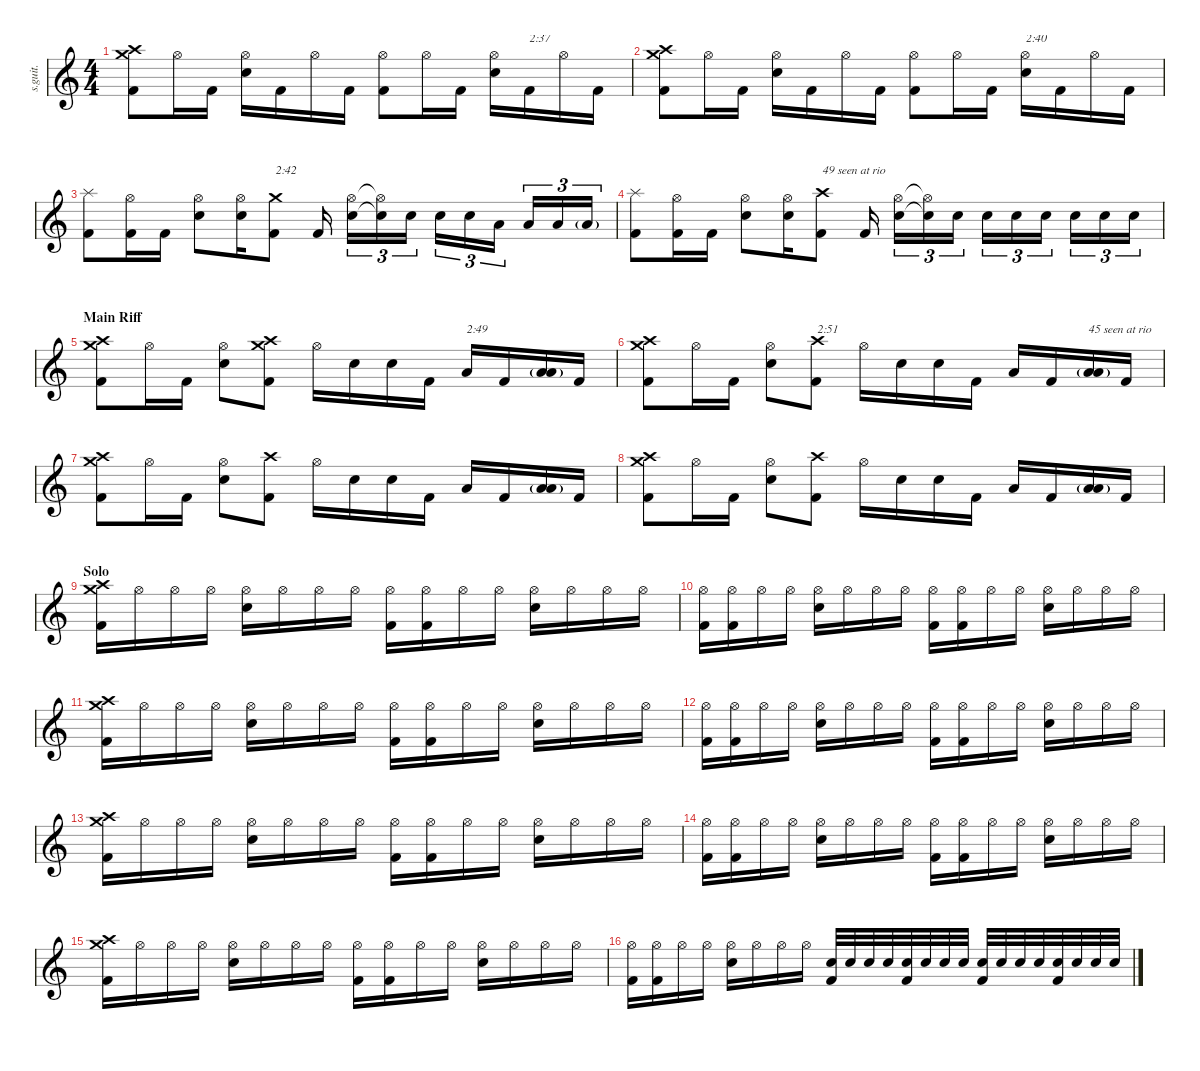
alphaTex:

\defaultSystemsLayout 4
\hideDynamics
\bracketExtendMode nobrackets
\track ("Dave Grohl | Drums" "s.guit.") {instrument percussion}
\staff {score}
\articulation defaults
\ts (4 4)
\tempo (79 hide)
\clef g2
\ks c
("Crash medium (hit)" "Crash high (hit)" "Kick (hit) 2").8{lyrics (0 "") lyrics (1 "") lyrics (2 "") lyrics (3 "") lyrics (4 "") dy f} "Hi-Hat (open)".16{lyrics (0 "") lyrics (1 "") lyrics (2 "") lyrics (3 "") lyrics (4 "")} "Kick (hit) 2".16{lyrics (0 "") lyrics (1 "") lyrics (2 "") lyrics (3 "") lyrics (4 "")} ("Hi-Hat (open)" "Snare (hit) 2").16{lyrics (0 "") lyrics (1 "") lyrics (2 "") lyrics (3 "") lyrics (4 "")} "Kick (hit) 2".16{lyrics (0 "") lyrics (1 "") lyrics (2 "") lyrics (3 "") lyrics (4 "")} "Hi-Hat (open)".16{lyrics (0 "") lyrics (1 "") lyrics (2 "") lyrics (3 "") lyrics (4 "")} "Kick (hit) 2".16{lyrics (0 "") lyrics (1 "") lyrics (2 "") lyrics (3 "") lyrics (4 "")} ("Hi-Hat (open)" "Kick (hit) 2").8{lyrics (0 "") lyrics (1 "") lyrics (2 "") lyrics (3 "") lyrics (4 "")} "Hi-Hat (open)".16{lyrics (0 "") lyrics (1 "") lyrics (2 "") lyrics (3 "") lyrics (4 "")} "Kick (hit) 2".16{lyrics (0 "") lyrics (1 "") lyrics (2 "") lyrics (3 "") lyrics (4 "")} ("Hi-Hat (open)" "Snare (hit) 2").16{lyrics (0 "") lyrics (1 "") lyrics (2 "") lyrics (3 "") lyrics (4 "")} "Kick (hit) 2".16{txt "2:37" lyrics (0 "") lyrics (1 "") lyrics (2 "") lyrics (3 "") lyrics (4 "")} "Hi-Hat (open)".16{lyrics (0 "") lyrics (1 "") lyrics (2 "") lyrics (3 "") lyrics (4 "")} "Kick (hit) 2".16{lyrics (0 "") lyrics (1 "") lyrics (2 "") lyrics (3 "") lyrics (4 "")} |
("Crash medium (hit)" "Crash high (hit)" "Kick (hit) 2").8{lyrics (0 "") lyrics (1 "") lyrics (2 "") lyrics (3 "") lyrics (4 "")} "Hi-Hat (open)".16{lyrics (0 "") lyrics (1 "") lyrics (2 "") lyrics (3 "") lyrics (4 "")} "Kick (hit) 2".16{lyrics (0 "") lyrics (1 "") lyrics (2 "") lyrics (3 "") lyrics (4 "")} ("Hi-Hat (open)" "Snare (hit) 2").16{lyrics (0 "") lyrics (1 "") lyrics (2 "") lyrics (3 "") lyrics (4 "")} "Kick (hit) 2".16{lyrics (0 "") lyrics (1 "") lyrics (2 "") lyrics (3 "") lyrics (4 "")} "Hi-Hat (open)".16{lyrics (0 "") lyrics (1 "") lyrics (2 "") lyrics (3 "") lyrics (4 "")} "Kick (hit) 2".16{lyrics (0 "") lyrics (1 "") lyrics (2 "") lyrics (3 "") lyrics (4 "")} ("Hi-Hat (open)" "Kick (hit) 2").8{lyrics (0 "") lyrics (1 "") lyrics (2 "") lyrics (3 "") lyrics (4 "")} "Hi-Hat (open)".16{lyrics (0 "") lyrics (1 "") lyrics (2 "") lyrics (3 "") lyrics (4 "")} "Kick (hit) 2".16{lyrics (0 "") lyrics (1 "") lyrics (2 "") lyrics (3 "") lyrics (4 "")} ("Hi-Hat (open)" "Snare (hit) 2").16{txt "2:40" lyrics (0 "") lyrics (1 "") lyrics (2 "") lyrics (3 "") lyrics (4 "")} "Kick (hit) 2".16{lyrics (0 "") lyrics (1 "") lyrics (2 "") lyrics (3 "") lyrics (4 "")} "Hi-Hat (open)".16{lyrics (0 "") lyrics (1 "") lyrics (2 "") lyrics (3 "") lyrics (4 "")} "Kick (hit) 2".16{lyrics (0 "") lyrics (1 "") lyrics (2 "") lyrics (3 "") lyrics (4 "")} |
("Splash (hit)" "Kick (hit) 2").8{lyrics (0 "") lyrics (1 "") lyrics (2 "") lyrics (3 "") lyrics (4 "")} ("Hi-Hat (open)" "Kick (hit) 2").16{lyrics (0 "") lyrics (1 "") lyrics (2 "") lyrics (3 "") lyrics (4 "")} "Kick (hit) 2".16{lyrics (0 "") lyrics (1 "") lyrics (2 "") lyrics (3 "") lyrics (4 "") dy fff} ("Hi-Hat (open)" "Snare (hit) 2").8{lyrics (0 "") lyrics (1 "") lyrics (2 "") lyrics (3 "") lyrics (4 "") dy f} ("Hi-Hat (open)" "Snare (hit) 2").16{lyrics (0 "") lyrics (1 "") lyrics (2 "") lyrics (3 "") lyrics (4 "")} ("Crash medium (hit)" "Kick (hit) 2").8{txt "2:42" lyrics (0 "") lyrics (1 "") lyrics (2 "") lyrics (3 "") lyrics (4 "")} "Kick (hit) 2".16{lyrics (0 "") lyrics (1 "") lyrics (2 "") lyrics (3 "") lyrics (4 "") dy fff} ("Hi-Hat (open)" "Snare (hit) 2").16{tu (3 2) lyrics (0 "") lyrics (1 "") lyrics (2 "") lyrics (3 "") lyrics (4 "") dy f} ("Hi-Hat (open)"{t} "Snare (hit) 2"{t}).16{tu (3 2) lyrics (0 "") lyrics (1 "") lyrics (2 "") lyrics (3 "") lyrics (4 "")} "Snare (hit) 2".16{tu (3 2) lyrics (0 "") lyrics (1 "") lyrics (2 "") lyrics (3 "") lyrics (4 "")} "Snare (hit) 2".16{tu (3 2) lyrics (0 "") lyrics (1 "") lyrics (2 "") lyrics (3 "") lyrics (4 "")} "Snare (hit) 2".16{tu (3 2) lyrics (0 "") lyrics (1 "") lyrics (2 "") lyrics (3 "") lyrics (4 "")} "Low Tom (hit)".16{tu (3 2) lyrics (0 "") lyrics (1 "") lyrics (2 "") lyrics (3 "") lyrics (4 "")} "Low Tom (hit)".16{tu (3 2) lyrics (0 "") lyrics (1 "") lyrics (2 "") lyrics (3 "") lyrics (4 "")} "Low Floor Tom (hit)".16{tu (3 2) lyrics (0 "") lyrics (1 "") lyrics (2 "") lyrics (3 "") lyrics (4 "")} "Low Floor Tom (hit)"{g}.16{tu (3 2) lyrics (0 "") lyrics (1 "") lyrics (2 "") lyrics (3 "") lyrics (4 "") dy ff} |
("Splash (hit)" "Kick (hit) 2").8{lyrics (0 "") lyrics (1 "") lyrics (2 "") lyrics (3 "") lyrics (4 "") dy f} ("Hi-Hat (open)" "Kick (hit) 2").16{lyrics (0 "") lyrics (1 "") lyrics (2 "") lyrics (3 "") lyrics (4 "")} "Kick (hit) 2".16{lyrics (0 "") lyrics (1 "") lyrics (2 "") lyrics (3 "") lyrics (4 "")} ("Hi-Hat (open)" "Snare (hit) 2").8{lyrics (0 "") lyrics (1 "") lyrics (2 "") lyrics (3 "") lyrics (4 "")} ("Hi-Hat (open)" "Snare (hit) 2").16{lyrics (0 "") lyrics (1 "") lyrics (2 "") lyrics (3 "") lyrics (4 "")} ("Crash high (hit)" "Kick (hit) 2").8{txt "49 seen at rio" lyrics (0 "") lyrics (1 "") lyrics (2 "") lyrics (3 "") lyrics (4 "")} "Kick (hit) 2".16{lyrics (0 "") lyrics (1 "") lyrics (2 "") lyrics (3 "") lyrics (4 "")} ("Hi-Hat (open)" "Snare (hit) 2").16{tu (3 2) lyrics (0 "") lyrics (1 "") lyrics (2 "") lyrics (3 "") lyrics (4 "")} ("Hi-Hat (open)"{t} "Snare (hit) 2"{t}).16{tu (3 2) lyrics (0 "") lyrics (1 "") lyrics (2 "") lyrics (3 "") lyrics (4 "")} "Snare (hit) 2".16{tu (3 2) lyrics (0 "") lyrics (1 "") lyrics (2 "") lyrics (3 "") lyrics (4 "")} "Snare (hit) 2".16{tu (3 2) lyrics (0 "") lyrics (1 "") lyrics (2 "") lyrics (3 "") lyrics (4 "")} "Snare (hit) 2".16{tu (3 2) lyrics (0 "") lyrics (1 "") lyrics (2 "") lyrics (3 "") lyrics (4 "")} "Snare (hit) 2".16{tu (3 2) lyrics (0 "") lyrics (1 "") lyrics (2 "") lyrics (3 "") lyrics (4 "")} "Snare (hit) 2".16{tu (3 2) lyrics (0 "") lyrics (1 "") lyrics (2 "") lyrics (3 "") lyrics (4 "")} "Snare (hit) 2".16{tu (3 2) lyrics (0 "") lyrics (1 "") lyrics (2 "") lyrics (3 "") lyrics (4 "")} "Snare (hit) 2".16{tu (3 2) lyrics (0 "") lyrics (1 "") lyrics (2 "") lyrics (3 "") lyrics (4 "")} |
\section ("" "Main Riff")
("Crash medium (hit)" "Crash high (hit)" "Kick (hit) 2").8{lyrics (0 "") lyrics (1 "") lyrics (2 "") lyrics (3 "") lyrics (4 "")} "Hi-Hat (open)".16{lyrics (0 "") lyrics (1 "") lyrics (2 "") lyrics (3 "") lyrics (4 "")} "Kick (hit) 2".16{lyrics (0 "") lyrics (1 "") lyrics (2 "") lyrics (3 "") lyrics (4 "") dy fff} ("Hi-Hat (open)" "Snare (hit) 2").8{lyrics (0 "") lyrics (1 "") lyrics (2 "") lyrics (3 "") lyrics (4 "") dy f} ("Crash medium (hit)" "Crash high (hit)" "Kick (hit) 2").8{lyrics (0 "") lyrics (1 "") lyrics (2 "") lyrics (3 "") lyrics (4 "")} "Hi-Hat (open)".16{lyrics (0 "") lyrics (1 "") lyrics (2 "") lyrics (3 "") lyrics (4 "")} "Snare (hit) 2".16{lyrics (0 "") lyrics (1 "") lyrics (2 "") lyrics (3 "") lyrics (4 "")} "Snare (hit) 2".16{lyrics (0 "") lyrics (1 "") lyrics (2 "") lyrics (3 "") lyrics (4 "")} "Kick (hit) 2".16{lyrics (0 "") lyrics (1 "") lyrics (2 "") lyrics (3 "") lyrics (4 "") dy fff} "Low Tom (hit)".16{txt "2:49" lyrics (0 "") lyrics (1 "") lyrics (2 "") lyrics (3 "") lyrics (4 "") dy f} "Kick (hit) 2".16{lyrics (0 "") lyrics (1 "") lyrics (2 "") lyrics (3 "") lyrics (4 "") dy fff} ("Low Tom (hit)"{g} "Low Floor Tom (hit)").16{lyrics (0 "") lyrics (1 "") lyrics (2 "") lyrics (3 "") lyrics (4 "") dy f} "Kick (hit) 2".16{lyrics (0 "") lyrics (1 "") lyrics (2 "") lyrics (3 "") lyrics (4 "") dy fff} |
("Crash medium (hit)" "Crash high (hit)" "Kick (hit) 2").8{lyrics (0 "") lyrics (1 "") lyrics (2 "") lyrics (3 "") lyrics (4 "") dy f} "Hi-Hat (open)".16{lyrics (0 "") lyrics (1 "") lyrics (2 "") lyrics (3 "") lyrics (4 "")} "Kick (hit) 2".16{lyrics (0 "") lyrics (1 "") lyrics (2 "") lyrics (3 "") lyrics (4 "") dy fff} ("Hi-Hat (open)" "Snare (hit) 2").8{lyrics (0 "") lyrics (1 "") lyrics (2 "") lyrics (3 "") lyrics (4 "") dy f} ("Crash high (hit)" "Kick (hit) 2").8{txt "2:51" lyrics (0 "") lyrics (1 "") lyrics (2 "") lyrics (3 "") lyrics (4 "")} "Hi-Hat (open)".16{lyrics (0 "") lyrics (1 "") lyrics (2 "") lyrics (3 "") lyrics (4 "")} "Snare (hit) 2".16{lyrics (0 "") lyrics (1 "") lyrics (2 "") lyrics (3 "") lyrics (4 "")} "Snare (hit) 2".16{lyrics (0 "") lyrics (1 "") lyrics (2 "") lyrics (3 "") lyrics (4 "")} "Kick (hit) 2".16{lyrics (0 "") lyrics (1 "") lyrics (2 "") lyrics (3 "") lyrics (4 "")} "Low Tom (hit)".16{lyrics (0 "") lyrics (1 "") lyrics (2 "") lyrics (3 "") lyrics (4 "")} "Kick (hit) 2".16{lyrics (0 "") lyrics (1 "") lyrics (2 "") lyrics (3 "") lyrics (4 "")} ("Low Tom (hit)"{g} "Low Floor Tom (hit)").16{txt "45 seen at rio" lyrics (0 "") lyrics (1 "") lyrics (2 "") lyrics (3 "") lyrics (4 "")} "Kick (hit) 2".16{lyrics (0 "") lyrics (1 "") lyrics (2 "") lyrics (3 "") lyrics (4 "")} |
("Crash medium (hit)" "Crash high (hit)" "Kick (hit) 2").8{lyrics (0 "") lyrics (1 "") lyrics (2 "") lyrics (3 "") lyrics (4 "")} "Hi-Hat (open)".16{lyrics (0 "") lyrics (1 "") lyrics (2 "") lyrics (3 "") lyrics (4 "")} "Kick (hit) 2".16{lyrics (0 "") lyrics (1 "") lyrics (2 "") lyrics (3 "") lyrics (4 "") dy fff} ("Hi-Hat (open)" "Snare (hit) 2").8{lyrics (0 "") lyrics (1 "") lyrics (2 "") lyrics (3 "") lyrics (4 "") dy f} ("Crash high (hit)" "Kick (hit) 2").8{lyrics (0 "") lyrics (1 "") lyrics (2 "") lyrics (3 "") lyrics (4 "")} "Hi-Hat (open)".16{lyrics (0 "") lyrics (1 "") lyrics (2 "") lyrics (3 "") lyrics (4 "")} "Snare (hit) 2".16{lyrics (0 "") lyrics (1 "") lyrics (2 "") lyrics (3 "") lyrics (4 "")} "Snare (hit) 2".16{lyrics (0 "") lyrics (1 "") lyrics (2 "") lyrics (3 "") lyrics (4 "")} "Kick (hit) 2".16{lyrics (0 "") lyrics (1 "") lyrics (2 "") lyrics (3 "") lyrics (4 "") dy fff} "Low Tom (hit)".16{lyrics (0 "") lyrics (1 "") lyrics (2 "") lyrics (3 "") lyrics (4 "") dy f} "Kick (hit) 2".16{lyrics (0 "") lyrics (1 "") lyrics (2 "") lyrics (3 "") lyrics (4 "") dy fff} ("Low Tom (hit)"{g} "Low Floor Tom (hit)").16{lyrics (0 "") lyrics (1 "") lyrics (2 "") lyrics (3 "") lyrics (4 "") dy f} "Kick (hit) 2".16{lyrics (0 "") lyrics (1 "") lyrics (2 "") lyrics (3 "") lyrics (4 "") dy fff} |
("Crash medium (hit)" "Crash high (hit)" "Kick (hit) 2").8{lyrics (0 "") lyrics (1 "") lyrics (2 "") lyrics (3 "") lyrics (4 "")} "Hi-Hat (open)".16{lyrics (0 "") lyrics (1 "") lyrics (2 "") lyrics (3 "") lyrics (4 "")} "Kick (hit) 2".16{lyrics (0 "") lyrics (1 "") lyrics (2 "") lyrics (3 "") lyrics (4 "")} ("Hi-Hat (open)" "Snare (hit) 2").8{lyrics (0 "") lyrics (1 "") lyrics (2 "") lyrics (3 "") lyrics (4 "") dy f} ("Crash high (hit)" "Kick (hit) 2").8{lyrics (0 "") lyrics (1 "") lyrics (2 "") lyrics (3 "") lyrics (4 "")} "Hi-Hat (open)".16{lyrics (0 "") lyrics (1 "") lyrics (2 "") lyrics (3 "") lyrics (4 "")} "Snare (hit) 2".16{lyrics (0 "") lyrics (1 "") lyrics (2 "") lyrics (3 "") lyrics (4 "")} "Snare (hit) 2".16{lyrics (0 "") lyrics (1 "") lyrics (2 "") lyrics (3 "") lyrics (4 "")} "Kick (hit) 2".16{lyrics (0 "") lyrics (1 "") lyrics (2 "") lyrics (3 "") lyrics (4 "") dy fff} "Low Tom (hit)".16{lyrics (0 "") lyrics (1 "") lyrics (2 "") lyrics (3 "") lyrics (4 "") dy f} "Kick (hit) 2".16{lyrics (0 "") lyrics (1 "") lyrics (2 "") lyrics (3 "") lyrics (4 "") dy fff} ("Low Tom (hit)"{g} "Low Floor Tom (hit)").16{lyrics (0 "") lyrics (1 "") lyrics (2 "") lyrics (3 "") lyrics (4 "") dy f} "Kick (hit) 2".16{lyrics (0 "") lyrics (1 "") lyrics (2 "") lyrics (3 "") lyrics (4 "") dy fff} |
\section ("" "Solo")
("Crash medium (hit)" "Crash high (hit)" "Kick (hit) 2").16{lyrics (0 "") lyrics (1 "") lyrics (2 "") lyrics (3 "") lyrics (4 "")} "Hi-Hat (open)".16{lyrics (0 "") lyrics (1 "") lyrics (2 "") lyrics (3 "") lyrics (4 "")} "Hi-Hat (open)".16{lyrics (0 "") lyrics (1 "") lyrics (2 "") lyrics (3 "") lyrics (4 "")} "Hi-Hat (open)".16{lyrics (0 "") lyrics (1 "") lyrics (2 "") lyrics (3 "") lyrics (4 "")} ("Hi-Hat (open)" "Snare (hit) 2").16{lyrics (0 "") lyrics (1 "") lyrics (2 "") lyrics (3 "") lyrics (4 "")} "Hi-Hat (open)".16{lyrics (0 "") lyrics (1 "") lyrics (2 "") lyrics (3 "") lyrics (4 "")} "Hi-Hat (open)".16{lyrics (0 "") lyrics (1 "") lyrics (2 "") lyrics (3 "") lyrics (4 "")} "Hi-Hat (open)".16{lyrics (0 "") lyrics (1 "") lyrics (2 "") lyrics (3 "") lyrics (4 "")} ("Hi-Hat (open)" "Kick (hit) 2").16{lyrics (0 "") lyrics (1 "") lyrics (2 "") lyrics (3 "") lyrics (4 "")} ("Kick (hit) 2" "Hi-Hat (open)").16{lyrics (0 "") lyrics (1 "") lyrics (2 "") lyrics (3 "") lyrics (4 "")} "Hi-Hat (open)".16{lyrics (0 "") lyrics (1 "") lyrics (2 "") lyrics (3 "") lyrics (4 "")} "Hi-Hat (open)".16{lyrics (0 "") lyrics (1 "") lyrics (2 "") lyrics (3 "") lyrics (4 "")} ("Hi-Hat (open)" "Snare (hit) 2").16{lyrics (0 "") lyrics (1 "") lyrics (2 "") lyrics (3 "") lyrics (4 "")} "Hi-Hat (open)".16{lyrics (0 "") lyrics (1 "") lyrics (2 "") lyrics (3 "") lyrics (4 "")} "Hi-Hat (open)".16{lyrics (0 "") lyrics (1 "") lyrics (2 "") lyrics (3 "") lyrics (4 "")} "Hi-Hat (open)".16{lyrics (0 "") lyrics (1 "") lyrics (2 "") lyrics (3 "") lyrics (4 "")} |
("Kick (hit) 2" "Hi-Hat (open)").16{lyrics (0 "") lyrics (1 "") lyrics (2 "") lyrics (3 "") lyrics (4 "")} ("Hi-Hat (open)" "Kick (hit) 2").16{lyrics (0 "") lyrics (1 "") lyrics (2 "") lyrics (3 "") lyrics (4 "")} "Hi-Hat (open)".16{lyrics (0 "") lyrics (1 "") lyrics (2 "") lyrics (3 "") lyrics (4 "")} "Hi-Hat (open)".16{lyrics (0 "") lyrics (1 "") lyrics (2 "") lyrics (3 "") lyrics (4 "")} ("Hi-Hat (open)" "Snare (hit) 2").16{lyrics (0 "") lyrics (1 "") lyrics (2 "") lyrics (3 "") lyrics (4 "")} "Hi-Hat (open)".16{lyrics (0 "") lyrics (1 "") lyrics (2 "") lyrics (3 "") lyrics (4 "")} "Hi-Hat (open)".16{lyrics (0 "") lyrics (1 "") lyrics (2 "") lyrics (3 "") lyrics (4 "")} "Hi-Hat (open)".16{lyrics (0 "") lyrics (1 "") lyrics (2 "") lyrics (3 "") lyrics (4 "")} ("Hi-Hat (open)" "Kick (hit) 2").16{lyrics (0 "") lyrics (1 "") lyrics (2 "") lyrics (3 "") lyrics (4 "")} ("Kick (hit) 2" "Hi-Hat (open)").16{lyrics (0 "") lyrics (1 "") lyrics (2 "") lyrics (3 "") lyrics (4 "")} "Hi-Hat (open)".16{lyrics (0 "") lyrics (1 "") lyrics (2 "") lyrics (3 "") lyrics (4 "")} "Hi-Hat (open)".16{lyrics (0 "") lyrics (1 "") lyrics (2 "") lyrics (3 "") lyrics (4 "")} ("Hi-Hat (open)" "Snare (hit) 2").16{lyrics (0 "") lyrics (1 "") lyrics (2 "") lyrics (3 "") lyrics (4 "")} "Hi-Hat (open)".16{lyrics (0 "") lyrics (1 "") lyrics (2 "") lyrics (3 "") lyrics (4 "")} "Hi-Hat (open)".16{lyrics (0 "") lyrics (1 "") lyrics (2 "") lyrics (3 "") lyrics (4 "")} "Hi-Hat (open)".16{lyrics (0 "") lyrics (1 "") lyrics (2 "") lyrics (3 "") lyrics (4 "")} |
("Crash medium (hit)" "Crash high (hit)" "Kick (hit) 2").16{lyrics (0 "") lyrics (1 "") lyrics (2 "") lyrics (3 "") lyrics (4 "")} "Hi-Hat (open)".16{lyrics (0 "") lyrics (1 "") lyrics (2 "") lyrics (3 "") lyrics (4 "")} "Hi-Hat (open)".16{lyrics (0 "") lyrics (1 "") lyrics (2 "") lyrics (3 "") lyrics (4 "")} "Hi-Hat (open)".16{lyrics (0 "") lyrics (1 "") lyrics (2 "") lyrics (3 "") lyrics (4 "")} ("Hi-Hat (open)" "Snare (hit) 2").16{lyrics (0 "") lyrics (1 "") lyrics (2 "") lyrics (3 "") lyrics (4 "")} "Hi-Hat (open)".16{lyrics (0 "") lyrics (1 "") lyrics (2 "") lyrics (3 "") lyrics (4 "")} "Hi-Hat (open)".16{lyrics (0 "") lyrics (1 "") lyrics (2 "") lyrics (3 "") lyrics (4 "")} "Hi-Hat (open)".16{lyrics (0 "") lyrics (1 "") lyrics (2 "") lyrics (3 "") lyrics (4 "")} ("Hi-Hat (open)" "Kick (hit) 2").16{lyrics (0 "") lyrics (1 "") lyrics (2 "") lyrics (3 "") lyrics (4 "")} ("Kick (hit) 2" "Hi-Hat (open)").16{lyrics (0 "") lyrics (1 "") lyrics (2 "") lyrics (3 "") lyrics (4 "")} "Hi-Hat (open)".16{lyrics (0 "") lyrics (1 "") lyrics (2 "") lyrics (3 "") lyrics (4 "")} "Hi-Hat (open)".16{lyrics (0 "") lyrics (1 "") lyrics (2 "") lyrics (3 "") lyrics (4 "")} ("Hi-Hat (open)" "Snare (hit) 2").16{lyrics (0 "") lyrics (1 "") lyrics (2 "") lyrics (3 "") lyrics (4 "")} "Hi-Hat (open)".16{lyrics (0 "") lyrics (1 "") lyrics (2 "") lyrics (3 "") lyrics (4 "")} "Hi-Hat (open)".16{lyrics (0 "") lyrics (1 "") lyrics (2 "") lyrics (3 "") lyrics (4 "")} "Hi-Hat (open)".16{lyrics (0 "") lyrics (1 "") lyrics (2 "") lyrics (3 "") lyrics (4 "")} |
("Kick (hit) 2" "Hi-Hat (open)").16{lyrics (0 "") lyrics (1 "") lyrics (2 "") lyrics (3 "") lyrics (4 "")} ("Hi-Hat (open)" "Kick (hit) 2").16{lyrics (0 "") lyrics (1 "") lyrics (2 "") lyrics (3 "") lyrics (4 "")} "Hi-Hat (open)".16{lyrics (0 "") lyrics (1 "") lyrics (2 "") lyrics (3 "") lyrics (4 "")} "Hi-Hat (open)".16{lyrics (0 "") lyrics (1 "") lyrics (2 "") lyrics (3 "") lyrics (4 "")} ("Hi-Hat (open)" "Snare (hit) 2").16{lyrics (0 "") lyrics (1 "") lyrics (2 "") lyrics (3 "") lyrics (4 "")} "Hi-Hat (open)".16{lyrics (0 "") lyrics (1 "") lyrics (2 "") lyrics (3 "") lyrics (4 "")} "Hi-Hat (open)".16{lyrics (0 "") lyrics (1 "") lyrics (2 "") lyrics (3 "") lyrics (4 "")} "Hi-Hat (open)".16{lyrics (0 "") lyrics (1 "") lyrics (2 "") lyrics (3 "") lyrics (4 "")} ("Hi-Hat (open)" "Kick (hit) 2").16{lyrics (0 "") lyrics (1 "") lyrics (2 "") lyrics (3 "") lyrics (4 "")} ("Kick (hit) 2" "Hi-Hat (open)").16{lyrics (0 "") lyrics (1 "") lyrics (2 "") lyrics (3 "") lyrics (4 "")} "Hi-Hat (open)".16{lyrics (0 "") lyrics (1 "") lyrics (2 "") lyrics (3 "") lyrics (4 "")} "Hi-Hat (open)".16{lyrics (0 "") lyrics (1 "") lyrics (2 "") lyrics (3 "") lyrics (4 "")} ("Hi-Hat (open)" "Snare (hit) 2").16{lyrics (0 "") lyrics (1 "") lyrics (2 "") lyrics (3 "") lyrics (4 "")} "Hi-Hat (open)".16{lyrics (0 "") lyrics (1 "") lyrics (2 "") lyrics (3 "") lyrics (4 "")} "Hi-Hat (open)".16{lyrics (0 "") lyrics (1 "") lyrics (2 "") lyrics (3 "") lyrics (4 "")} "Hi-Hat (open)".16{lyrics (0 "") lyrics (1 "") lyrics (2 "") lyrics (3 "") lyrics (4 "")} |
("Crash medium (hit)" "Crash high (hit)" "Kick (hit) 2").16{lyrics (0 "") lyrics (1 "") lyrics (2 "") lyrics (3 "") lyrics (4 "")} "Hi-Hat (open)".16{lyrics (0 "") lyrics (1 "") lyrics (2 "") lyrics (3 "") lyrics (4 "")} "Hi-Hat (open)".16{lyrics (0 "") lyrics (1 "") lyrics (2 "") lyrics (3 "") lyrics (4 "")} "Hi-Hat (open)".16{lyrics (0 "") lyrics (1 "") lyrics (2 "") lyrics (3 "") lyrics (4 "")} ("Hi-Hat (open)" "Snare (hit) 2").16{lyrics (0 "") lyrics (1 "") lyrics (2 "") lyrics (3 "") lyrics (4 "")} "Hi-Hat (open)".16{lyrics (0 "") lyrics (1 "") lyrics (2 "") lyrics (3 "") lyrics (4 "")} "Hi-Hat (open)".16{lyrics (0 "") lyrics (1 "") lyrics (2 "") lyrics (3 "") lyrics (4 "")} "Hi-Hat (open)".16{lyrics (0 "") lyrics (1 "") lyrics (2 "") lyrics (3 "") lyrics (4 "")} ("Hi-Hat (open)" "Kick (hit) 2").16{lyrics (0 "") lyrics (1 "") lyrics (2 "") lyrics (3 "") lyrics (4 "")} ("Kick (hit) 2" "Hi-Hat (open)").16{lyrics (0 "") lyrics (1 "") lyrics (2 "") lyrics (3 "") lyrics (4 "")} "Hi-Hat (open)".16{lyrics (0 "") lyrics (1 "") lyrics (2 "") lyrics (3 "") lyrics (4 "")} "Hi-Hat (open)".16{lyrics (0 "") lyrics (1 "") lyrics (2 "") lyrics (3 "") lyrics (4 "")} ("Hi-Hat (open)" "Snare (hit) 2").16{lyrics (0 "") lyrics (1 "") lyrics (2 "") lyrics (3 "") lyrics (4 "")} "Hi-Hat (open)".16{lyrics (0 "") lyrics (1 "") lyrics (2 "") lyrics (3 "") lyrics (4 "")} "Hi-Hat (open)".16{lyrics (0 "") lyrics (1 "") lyrics (2 "") lyrics (3 "") lyrics (4 "")} "Hi-Hat (open)".16{lyrics (0 "") lyrics (1 "") lyrics (2 "") lyrics (3 "") lyrics (4 "")} |
("Kick (hit) 2" "Hi-Hat (open)").16{lyrics (0 "") lyrics (1 "") lyrics (2 "") lyrics (3 "") lyrics (4 "")} ("Hi-Hat (open)" "Kick (hit) 2").16{lyrics (0 "") lyrics (1 "") lyrics (2 "") lyrics (3 "") lyrics (4 "")} "Hi-Hat (open)".16{lyrics (0 "") lyrics (1 "") lyrics (2 "") lyrics (3 "") lyrics (4 "")} "Hi-Hat (open)".16{lyrics (0 "") lyrics (1 "") lyrics (2 "") lyrics (3 "") lyrics (4 "")} ("Hi-Hat (open)" "Snare (hit) 2").16{lyrics (0 "") lyrics (1 "") lyrics (2 "") lyrics (3 "") lyrics (4 "")} "Hi-Hat (open)".16{lyrics (0 "") lyrics (1 "") lyrics (2 "") lyrics (3 "") lyrics (4 "")} "Hi-Hat (open)".16{lyrics (0 "") lyrics (1 "") lyrics (2 "") lyrics (3 "") lyrics (4 "")} "Hi-Hat (open)".16{lyrics (0 "") lyrics (1 "") lyrics (2 "") lyrics (3 "") lyrics (4 "")} ("Hi-Hat (open)" "Kick (hit) 2").16{lyrics (0 "") lyrics (1 "") lyrics (2 "") lyrics (3 "") lyrics (4 "")} ("Kick (hit) 2" "Hi-Hat (open)").16{lyrics (0 "") lyrics (1 "") lyrics (2 "") lyrics (3 "") lyrics (4 "")} "Hi-Hat (open)".16{lyrics (0 "") lyrics (1 "") lyrics (2 "") lyrics (3 "") lyrics (4 "")} "Hi-Hat (open)".16{lyrics (0 "") lyrics (1 "") lyrics (2 "") lyrics (3 "") lyrics (4 "")} ("Hi-Hat (open)" "Snare (hit) 2").16{lyrics (0 "") lyrics (1 "") lyrics (2 "") lyrics (3 "") lyrics (4 "")} "Hi-Hat (open)".16{lyrics (0 "") lyrics (1 "") lyrics (2 "") lyrics (3 "") lyrics (4 "")} "Hi-Hat (open)".16{lyrics (0 "") lyrics (1 "") lyrics (2 "") lyrics (3 "") lyrics (4 "")} "Hi-Hat (open)".16{lyrics (0 "") lyrics (1 "") lyrics (2 "") lyrics (3 "") lyrics (4 "")} |
("Crash medium (hit)" "Crash high (hit)" "Kick (hit) 2").16{lyrics (0 "") lyrics (1 "") lyrics (2 "") lyrics (3 "") lyrics (4 "")} "Hi-Hat (open)".16{lyrics (0 "") lyrics (1 "") lyrics (2 "") lyrics (3 "") lyrics (4 "")} "Hi-Hat (open)".16{lyrics (0 "") lyrics (1 "") lyrics (2 "") lyrics (3 "") lyrics (4 "")} "Hi-Hat (open)".16{lyrics (0 "") lyrics (1 "") lyrics (2 "") lyrics (3 "") lyrics (4 "")} ("Hi-Hat (open)" "Snare (hit) 2").16{lyrics (0 "") lyrics (1 "") lyrics (2 "") lyrics (3 "") lyrics (4 "")} "Hi-Hat (open)".16{lyrics (0 "") lyrics (1 "") lyrics (2 "") lyrics (3 "") lyrics (4 "")} "Hi-Hat (open)".16{lyrics (0 "") lyrics (1 "") lyrics (2 "") lyrics (3 "") lyrics (4 "")} "Hi-Hat (open)".16{lyrics (0 "") lyrics (1 "") lyrics (2 "") lyrics (3 "") lyrics (4 "")} ("Hi-Hat (open)" "Kick (hit) 2").16{lyrics (0 "") lyrics (1 "") lyrics (2 "") lyrics (3 "") lyrics (4 "")} ("Kick (hit) 2" "Hi-Hat (open)").16{lyrics (0 "") lyrics (1 "") lyrics (2 "") lyrics (3 "") lyrics (4 "")} "Hi-Hat (open)".16{lyrics (0 "") lyrics (1 "") lyrics (2 "") lyrics (3 "") lyrics (4 "")} "Hi-Hat (open)".16{lyrics (0 "") lyrics (1 "") lyrics (2 "") lyrics (3 "") lyrics (4 "")} ("Hi-Hat (open)" "Snare (hit) 2").16{lyrics (0 "") lyrics (1 "") lyrics (2 "") lyrics (3 "") lyrics (4 "")} "Hi-Hat (open)".16{lyrics (0 "") lyrics (1 "") lyrics (2 "") lyrics (3 "") lyrics (4 "")} "Hi-Hat (open)".16{lyrics (0 "") lyrics (1 "") lyrics (2 "") lyrics (3 "") lyrics (4 "")} "Hi-Hat (open)".16{lyrics (0 "") lyrics (1 "") lyrics (2 "") lyrics (3 "") lyrics (4 "")} |
("Kick (hit) 2" "Hi-Hat (open)").16{lyrics (0 "") lyrics (1 "") lyrics (2 "") lyrics (3 "") lyrics (4 "")} ("Hi-Hat (open)" "Kick (hit) 2").16{lyrics (0 "") lyrics (1 "") lyrics (2 "") lyrics (3 "") lyrics (4 "")} "Hi-Hat (open)".16{lyrics (0 "") lyrics (1 "") lyrics (2 "") lyrics (3 "") lyrics (4 "")} "Hi-Hat (open)".16{lyrics (0 "") lyrics (1 "") lyrics (2 "") lyrics (3 "") lyrics (4 "")} ("Hi-Hat (open)" "Snare (hit) 2").16{lyrics (0 "") lyrics (1 "") lyrics (2 "") lyrics (3 "") lyrics (4 "")} "Hi-Hat (open)".16{lyrics (0 "") lyrics (1 "") lyrics (2 "") lyrics (3 "") lyrics (4 "")} "Hi-Hat (open)".16{lyrics (0 "") lyrics (1 "") lyrics (2 "") lyrics (3 "") lyrics (4 "")} "Hi-Hat (open)".16{lyrics (0 "") lyrics (1 "") lyrics (2 "") lyrics (3 "") lyrics (4 "")} ("Snare (hit) 2" "Kick (hit) 2").32{lyrics (0 "") lyrics (1 "") lyrics (2 "") lyrics (3 "") lyrics (4 "")} "Snare (hit) 2".32{lyrics (0 "") lyrics (1 "") lyrics (2 "") lyrics (3 "") lyrics (4 "")} "Snare (hit) 2".32{lyrics (0 "") lyrics (1 "") lyrics (2 "") lyrics (3 "") lyrics (4 "")} "Snare (hit) 2".32{lyrics (0 "") lyrics (1 "") lyrics (2 "") lyrics (3 "") lyrics (4 "")} ("Snare (hit) 2" "Kick (hit) 2").32{lyrics (0 "") lyrics (1 "") lyrics (2 "") lyrics (3 "") lyrics (4 "")} "Snare (hit) 2".32{lyrics (0 "") lyrics (1 "") lyrics (2 "") lyrics (3 "") lyrics (4 "")} "Snare (hit) 2".32{lyrics (0 "") lyrics (1 "") lyrics (2 "") lyrics (3 "") lyrics (4 "")} "Snare (hit) 2".32{lyrics (0 "") lyrics (1 "") lyrics (2 "") lyrics (3 "") lyrics (4 "")} ("Snare (hit) 2" "Kick (hit) 2").32{lyrics (0 "") lyrics (1 "") lyrics (2 "") lyrics (3 "") lyrics (4 "")} "Snare (hit) 2".32{lyrics (0 "") lyrics (1 "") lyrics (2 "") lyrics (3 "") lyrics (4 "")} "Snare (hit) 2".32{lyrics (0 "") lyrics (1 "") lyrics (2 "") lyrics (3 "") lyrics (4 "")} "Snare (hit) 2".32{lyrics (0 "") lyrics (1 "") lyrics (2 "") lyrics (3 "") lyrics (4 "")} ("Snare (hit) 2" "Kick (hit) 2").32{lyrics (0 "") lyrics (1 "") lyrics (2 "") lyrics (3 "") lyrics (4 "")} "Snare (hit) 2".32{lyrics (0 "") lyrics (1 "") lyrics (2 "") lyrics (3 "") lyrics (4 "")} "Snare (hit) 2".32{lyrics (0 "") lyrics (1 "") lyrics (2 "") lyrics (3 "") lyrics (4 "")} "Snare (hit) 2".32{lyrics (0 "") lyrics (1 "") lyrics (2 "") lyrics (3 "") lyrics (4 "")}
